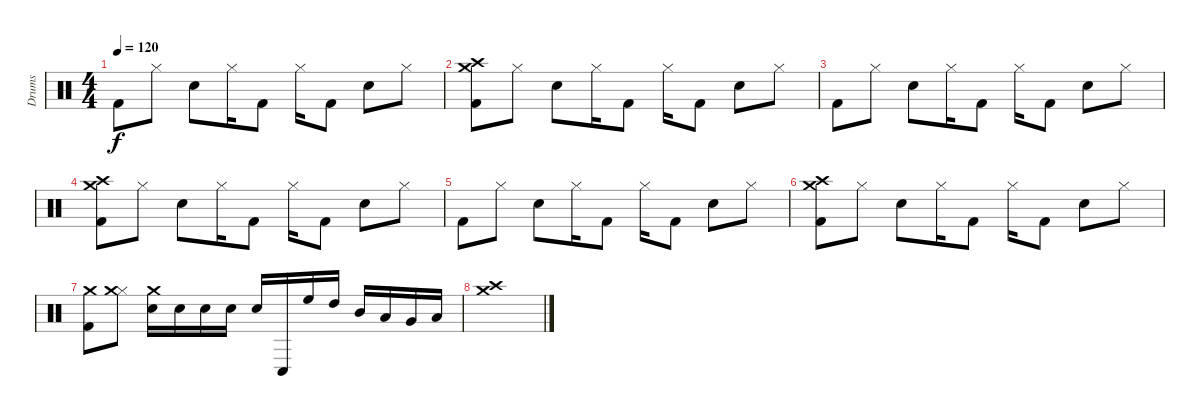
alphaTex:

\track ("Drums" "Drums") {instrument percussion}
\staff {score}
\articulation defaults
\ts (4 4)
\tempo 120
\clef neutral
\ks c "Kick (hit) 2".8{dy f} "Hi-Hat (closed)".8 "Snare (hit) 2".8 "Hi-Hat (closed)".16 "Kick (hit) 2".8 "Hi-Hat (closed)".16 "Kick (hit) 2".8 "Snare (hit) 2".8 "Hi-Hat (closed)".8
|
("Kick (hit) 2" "Crash medium (hit)" "Crash high (hit)").8 "Hi-Hat (closed)".8 "Snare (hit) 2".8 "Hi-Hat (closed)".16 "Kick (hit) 2".8 "Hi-Hat (closed)".16 "Kick (hit) 2".8 "Snare (hit) 2".8 "Hi-Hat (closed)".8 |
"Kick (hit) 2".8 "Hi-Hat (closed)".8 "Snare (hit) 2".8 "Hi-Hat (closed)".16 "Kick (hit) 2".8 "Hi-Hat (closed)".16 "Kick (hit) 2".8 "Snare (hit) 2".8 "Hi-Hat (closed)".8 |
("Kick (hit) 2" "Crash medium (hit)" "Crash high (hit)").8 "Hi-Hat (closed)".8 "Snare (hit) 2".8 "Hi-Hat (closed)".16 "Kick (hit) 2".8 "Hi-Hat (closed)".16 "Kick (hit) 2".8 "Snare (hit) 2".8 "Hi-Hat (closed)".8 |
"Kick (hit) 2".8 "Hi-Hat (closed)".8 "Snare (hit) 2".8 "Hi-Hat (closed)".16 "Kick (hit) 2".8 "Hi-Hat (closed)".16 "Kick (hit) 2".8 "Snare (hit) 2".8 "Hi-Hat (closed)".8 |
("Kick (hit) 2" "Crash medium (hit)" "Crash high (hit)").8 "Hi-Hat (closed)".8 "Snare (hit) 2".8 "Hi-Hat (closed)".16 "Kick (hit) 2".8 "Hi-Hat (closed)".16 "Kick (hit) 2".8 "Snare (hit) 2".8 "Hi-Hat (closed)".8 |
("Kick (hit) 2" "Crash medium (hit)").8 ("Hi-Hat (closed)" "Crash medium (hit)").8 ("Snare (hit) 2" "Crash medium (hit)").16 "Snare (hit) 2".16 "Snare (hit) 2".16 "Snare (hit) 2".16 "Snare (hit) 2".16 "Conga low (hit)".16 "High Floor Tom (hit)".16 "High Tom (hit)".16 "Mid Tom (hit)".16 "Low Tom (hit)".16 "Very Low Tom (hit)".16 "Low Floor Tom (hit)".16 |
("Crash high (hit)" "Crash medium (hit)").1
